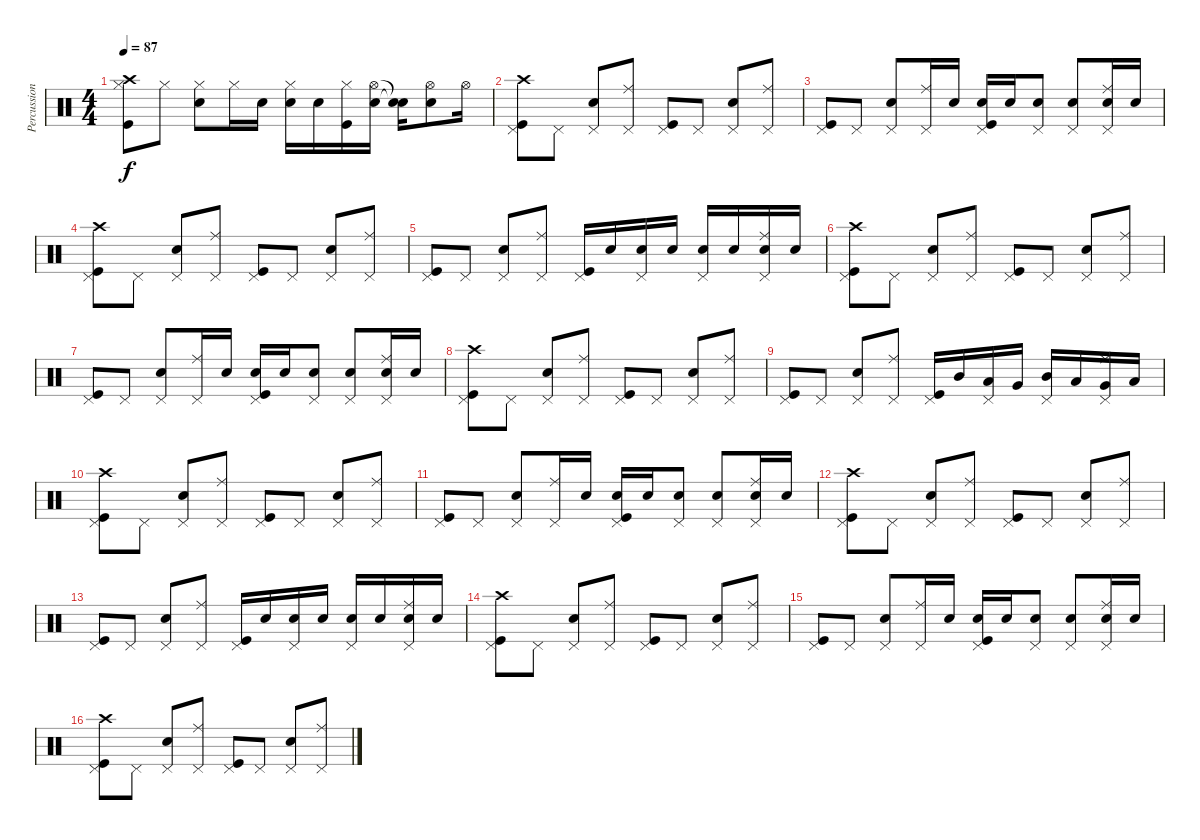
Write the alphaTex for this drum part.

\track ("Percussion" "Percussion") {instrument percussion}
\staff {score}
\articulation defaults
\ts (4 4)
\tempo 87
\clef neutral
\ks c
("Crash high (hit)" "Hi-Hat (closed)" "Kick (hit)").8{dy f} "Hi-Hat (closed)".8 ("Hi-Hat (closed)" "Snare (hit) 2").8 "Hi-Hat (closed)".16 "Snare (hit) 2".16 ("Hi-Hat (closed)" "Snare (hit) 2").16 "Snare (hit) 2".16 ("Hi-Hat (closed)" "Kick (hit)").16 ("Hi-Hat (open)" "Snare (hit) 2").16 ("Snare (hit)"{t} "Snare (hit)"{t}).16 ("Hi-Hat (open)" "Snare (hit) 2").8 "Hi-Hat (open)".16 |
("Pedal Hi-Hat (hit)" "Crash high (hit)" "Kick (hit)").8 "Pedal Hi-Hat (hit)".8 ("Pedal Hi-Hat (hit)" "Snare (hit) 2").8 ("Ride (middle)" "Pedal Hi-Hat (hit)").8 ("Pedal Hi-Hat (hit)" "Kick (hit)").8 "Pedal Hi-Hat (hit)".8 ("Pedal Hi-Hat (hit)" "Snare (hit) 2").8 ("Ride (middle)" "Pedal Hi-Hat (hit)").8 |
("Pedal Hi-Hat (hit)" "Kick (hit)").8 "Pedal Hi-Hat (hit)".8 ("Pedal Hi-Hat (hit)" "Snare (hit) 2").8 ("Ride (middle)" "Pedal Hi-Hat (hit)").16 "Snare (hit) 2".16 ("Pedal Hi-Hat (hit)" "Snare (hit) 2" "Kick (hit)").16 "Snare (hit) 2".16 ("Pedal Hi-Hat (hit)" "Snare (hit) 2").8 ("Pedal Hi-Hat (hit)" "Snare (hit) 2").8 ("Ride (middle)" "Pedal Hi-Hat (hit)" "Snare (hit) 2").16 "Snare (hit) 2".16 |
("Pedal Hi-Hat (hit)" "Crash high (hit)" "Kick (hit)").8 "Pedal Hi-Hat (hit)".8 ("Pedal Hi-Hat (hit)" "Snare (hit) 2").8 ("Ride (middle)" "Pedal Hi-Hat (hit)").8 ("Pedal Hi-Hat (hit)" "Kick (hit)").8 "Pedal Hi-Hat (hit)".8 ("Pedal Hi-Hat (hit)" "Snare (hit) 2").8 ("Ride (middle)" "Pedal Hi-Hat (hit)").8 |
("Pedal Hi-Hat (hit)" "Kick (hit)").8 "Pedal Hi-Hat (hit)".8 ("Pedal Hi-Hat (hit)" "Snare (hit) 2").8 ("Ride (middle)" "Pedal Hi-Hat (hit)").8 ("Pedal Hi-Hat (hit)" "Kick (hit)").16 "Snare (hit) 2".16 ("Pedal Hi-Hat (hit)" "Snare (hit) 2").16 "Snare (hit) 2".16 ("Pedal Hi-Hat (hit)" "Snare (hit) 2").16 "Snare (hit) 2".16 ("Ride (middle)" "Pedal Hi-Hat (hit)" "Snare (hit) 2").16 "Snare (hit) 2".16 |
("Pedal Hi-Hat (hit)" "Crash high (hit)" "Kick (hit)").8 "Pedal Hi-Hat (hit)".8 ("Pedal Hi-Hat (hit)" "Snare (hit) 2").8 ("Ride (middle)" "Pedal Hi-Hat (hit)").8 ("Pedal Hi-Hat (hit)" "Kick (hit)").8 "Pedal Hi-Hat (hit)".8 ("Pedal Hi-Hat (hit)" "Snare (hit) 2").8 ("Ride (middle)" "Pedal Hi-Hat (hit)").8 |
("Pedal Hi-Hat (hit)" "Kick (hit)").8 "Pedal Hi-Hat (hit)".8 ("Pedal Hi-Hat (hit)" "Snare (hit) 2").8 ("Ride (middle)" "Pedal Hi-Hat (hit)").16 "Snare (hit) 2".16 ("Pedal Hi-Hat (hit)" "Snare (hit) 2" "Kick (hit)").16 "Snare (hit) 2".16 ("Pedal Hi-Hat (hit)" "Snare (hit) 2").8 ("Pedal Hi-Hat (hit)" "Snare (hit) 2").8 ("Ride (middle)" "Pedal Hi-Hat (hit)" "Snare (hit) 2").16 "Snare (hit) 2".16 |
("Pedal Hi-Hat (hit)" "Crash high (hit)" "Kick (hit)").8 "Pedal Hi-Hat (hit)".8 ("Pedal Hi-Hat (hit)" "Snare (hit) 2").8 ("Ride (middle)" "Pedal Hi-Hat (hit)").8 ("Pedal Hi-Hat (hit)" "Kick (hit)").8 "Pedal Hi-Hat (hit)".8 ("Pedal Hi-Hat (hit)" "Snare (hit) 2").8 ("Ride (middle)" "Pedal Hi-Hat (hit)").8 |
("Pedal Hi-Hat (hit)" "Kick (hit)").8 "Pedal Hi-Hat (hit)".8 ("Pedal Hi-Hat (hit)" "Snare (hit) 2").8 ("Ride (middle)" "Pedal Hi-Hat (hit)").8 ("Pedal Hi-Hat (hit)" "Kick (hit)").16 "Mid Tom (hit)".16 ("Pedal Hi-Hat (hit)" "Low Tom (hit)").16 "Very Low Tom (hit)".16 ("Pedal Hi-Hat (hit)" "Mid Tom (hit)").16 "Low Tom (hit)".16 ("Ride (middle)" "Pedal Hi-Hat (hit)" "Very Low Tom (hit)").16 "Low Floor Tom (hit)".16 |
("Pedal Hi-Hat (hit)" "Crash high (hit)" "Kick (hit)").8 "Pedal Hi-Hat (hit)".8 ("Pedal Hi-Hat (hit)" "Snare (hit) 2").8 ("Ride (middle)" "Pedal Hi-Hat (hit)").8 ("Pedal Hi-Hat (hit)" "Kick (hit)").8 "Pedal Hi-Hat (hit)".8 ("Pedal Hi-Hat (hit)" "Snare (hit) 2").8 ("Ride (middle)" "Pedal Hi-Hat (hit)").8 |
("Pedal Hi-Hat (hit)" "Kick (hit)").8 "Pedal Hi-Hat (hit)".8 ("Pedal Hi-Hat (hit)" "Snare (hit) 2").8 ("Ride (middle)" "Pedal Hi-Hat (hit)").16 "Snare (hit) 2".16 ("Pedal Hi-Hat (hit)" "Snare (hit) 2" "Kick (hit)").16 "Snare (hit) 2".16 ("Pedal Hi-Hat (hit)" "Snare (hit) 2").8 ("Pedal Hi-Hat (hit)" "Snare (hit) 2").8 ("Ride (middle)" "Pedal Hi-Hat (hit)" "Snare (hit) 2").16 "Snare (hit) 2".16 |
("Pedal Hi-Hat (hit)" "Crash high (hit)" "Kick (hit)").8 "Pedal Hi-Hat (hit)".8 ("Pedal Hi-Hat (hit)" "Snare (hit) 2").8 ("Ride (middle)" "Pedal Hi-Hat (hit)").8 ("Pedal Hi-Hat (hit)" "Kick (hit)").8 "Pedal Hi-Hat (hit)".8 ("Pedal Hi-Hat (hit)" "Snare (hit) 2").8 ("Ride (middle)" "Pedal Hi-Hat (hit)").8 |
("Pedal Hi-Hat (hit)" "Kick (hit)").8 "Pedal Hi-Hat (hit)".8 ("Pedal Hi-Hat (hit)" "Snare (hit) 2").8 ("Ride (middle)" "Pedal Hi-Hat (hit)").8 ("Pedal Hi-Hat (hit)" "Kick (hit)").16 "Snare (hit) 2".16 ("Pedal Hi-Hat (hit)" "Snare (hit) 2").16 "Snare (hit) 2".16 ("Pedal Hi-Hat (hit)" "Snare (hit) 2").16 "Snare (hit) 2".16 ("Ride (middle)" "Pedal Hi-Hat (hit)" "Snare (hit) 2").16 "Snare (hit) 2".16 |
("Pedal Hi-Hat (hit)" "Crash high (hit)" "Kick (hit)").8 "Pedal Hi-Hat (hit)".8 ("Pedal Hi-Hat (hit)" "Snare (hit) 2").8 ("Ride (middle)" "Pedal Hi-Hat (hit)").8 ("Pedal Hi-Hat (hit)" "Kick (hit)").8 "Pedal Hi-Hat (hit)".8 ("Pedal Hi-Hat (hit)" "Snare (hit) 2").8 ("Ride (middle)" "Pedal Hi-Hat (hit)").8 |
("Pedal Hi-Hat (hit)" "Kick (hit)").8 "Pedal Hi-Hat (hit)".8 ("Pedal Hi-Hat (hit)" "Snare (hit) 2").8 ("Ride (middle)" "Pedal Hi-Hat (hit)").16 "Snare (hit) 2".16 ("Pedal Hi-Hat (hit)" "Snare (hit) 2" "Kick (hit)").16 "Snare (hit) 2".16 ("Pedal Hi-Hat (hit)" "Snare (hit) 2").8 ("Pedal Hi-Hat (hit)" "Snare (hit) 2").8 ("Ride (middle)" "Pedal Hi-Hat (hit)" "Snare (hit) 2").16 "Snare (hit) 2".16 |
("Pedal Hi-Hat (hit)" "Crash high (hit)" "Kick (hit)").8 "Pedal Hi-Hat (hit)".8 ("Pedal Hi-Hat (hit)" "Snare (hit) 2").8 ("Ride (middle)" "Pedal Hi-Hat (hit)").8 ("Pedal Hi-Hat (hit)" "Kick (hit)").8 "Pedal Hi-Hat (hit)".8 ("Pedal Hi-Hat (hit)" "Snare (hit) 2").8 ("Ride (middle)" "Pedal Hi-Hat (hit)").8
